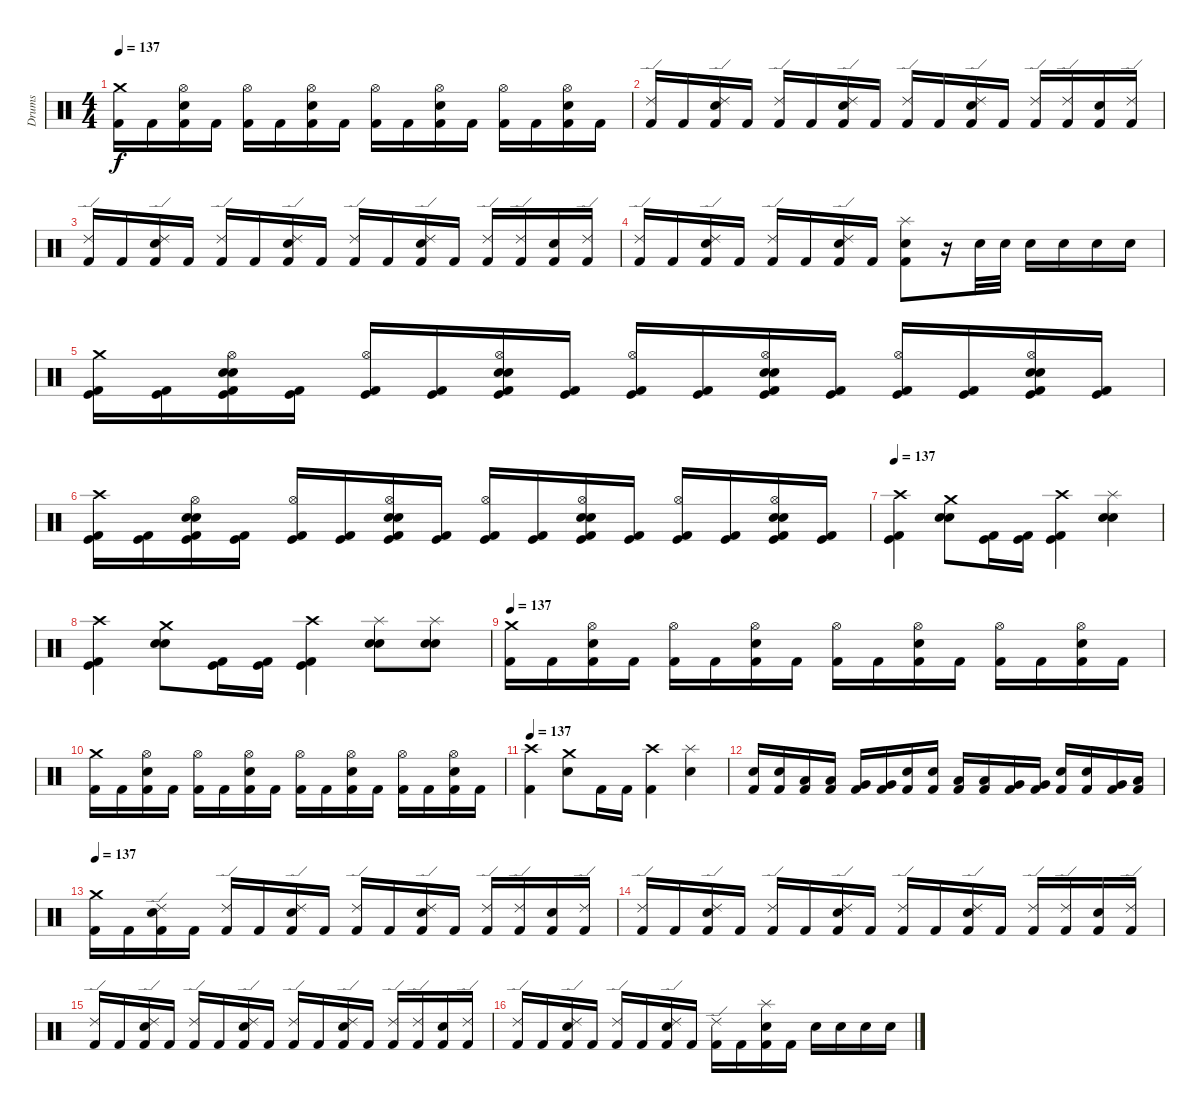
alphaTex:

\track ("Drums" "Drums") {instrument percussion}
\staff {score}
\articulation defaults
\ts (4 4)
\tempo 137
\clef neutral
\ks c
("Crash medium (hit)" "Kick (hit) 2").16{dy f} "Kick (hit) 2".16 ("Hi-Hat (open)" "Snare (hit) 2" "Kick (hit) 2").16 "Kick (hit) 2".16 ("Hi-Hat (open)" "Kick (hit) 2").16 "Kick (hit) 2".16 ("Hi-Hat (open)" "Snare (hit) 2" "Kick (hit) 2").16 "Kick (hit) 2".16 ("Hi-Hat (open)" "Kick (hit) 2").16 "Kick (hit) 2".16 ("Hi-Hat (open)" "Snare (hit) 2" "Kick (hit) 2").16 "Kick (hit) 2".16 ("Hi-Hat (open)" "Kick (hit) 2").16 "Kick (hit) 2".16 ("Hi-Hat (open)" "Snare (hit) 2" "Kick (hit) 2").16 "Kick (hit) 2".16 |
("Ride (edge) 2" "Kick (hit) 2").16 "Kick (hit) 2".16 ("Ride (edge) 2" "Snare (hit) 2" "Kick (hit) 2").16 "Kick (hit) 2".16 ("Ride (edge) 2" "Kick (hit) 2").16 "Kick (hit) 2".16 ("Ride (edge) 2" "Snare (hit) 2" "Kick (hit) 2").16 "Kick (hit) 2".16 ("Ride (edge) 2" "Kick (hit) 2").16 "Kick (hit) 2".16 ("Ride (edge) 2" "Snare (hit) 2" "Kick (hit) 2").16 "Kick (hit) 2".16 ("Ride (edge) 2" "Kick (hit) 2").16 ("Ride (edge) 2" "Kick (hit) 2").16 ("Snare (hit) 2" "Kick (hit) 2").16 ("Ride (edge) 2" "Kick (hit) 2").16 |
("Ride (edge) 2" "Kick (hit) 2").16 "Kick (hit) 2".16 ("Ride (edge) 2" "Snare (hit) 2" "Kick (hit) 2").16 "Kick (hit) 2".16 ("Ride (edge) 2" "Kick (hit) 2").16 "Kick (hit) 2".16 ("Ride (edge) 2" "Snare (hit) 2" "Kick (hit) 2").16 "Kick (hit) 2".16 ("Ride (edge) 2" "Kick (hit) 2").16 "Kick (hit) 2".16 ("Ride (edge) 2" "Snare (hit) 2" "Kick (hit) 2").16 "Kick (hit) 2".16 ("Ride (edge) 2" "Kick (hit) 2").16 ("Ride (edge) 2" "Kick (hit) 2").16 ("Snare (hit) 2" "Kick (hit) 2").16 ("Ride (edge) 2" "Kick (hit) 2").16 |
("Ride (edge) 2" "Kick (hit) 2").16 "Kick (hit) 2".16 ("Ride (edge) 2" "Snare (hit) 2" "Kick (hit) 2").16 "Kick (hit) 2".16 ("Ride (edge) 2" "Kick (hit) 2").16 "Kick (hit) 2".16 ("Ride (edge) 2" "Snare (hit) 2" "Kick (hit) 2").16 "Kick (hit) 2".16 ("Splash (hit)" "Snare (hit) 2" "Kick (hit) 2").8 r.16 "Snare (hit) 2".32 "Snare (hit) 2".32 "Snare (hit) 2".16 "Snare (hit) 2".16 "Snare (hit) 2".16 "Snare (hit) 2".16 |
("Crash medium (hit)" "Kick (hit) 2" "Kick (hit)").16 ("Kick (hit)" "Kick (hit) 2").16 ("Electric Snare (hit)" "Kick (hit)" "Kick (hit) 2" "Snare (hit) 2" "Hi-Hat (open)").16 ("Kick (hit)" "Kick (hit) 2").16 ("Hi-Hat (open)" "Kick (hit)" "Kick (hit) 2").16 ("Kick (hit)" "Kick (hit) 2").16 ("Electric Snare (hit)" "Kick (hit)" "Kick (hit) 2" "Snare (hit) 2" "Hi-Hat (open)").16 ("Kick (hit)" "Kick (hit) 2").16 ("Hi-Hat (open)" "Kick (hit)" "Kick (hit) 2").16 ("Kick (hit)" "Kick (hit) 2").16 ("Electric Snare (hit)" "Snare (hit) 2" "Kick (hit)" "Kick (hit) 2" "Hi-Hat (open)").16 ("Kick (hit)" "Kick (hit) 2").16 ("Hi-Hat (open)" "Kick (hit)" "Kick (hit) 2").16 ("Kick (hit)" "Kick (hit) 2").16 ("Hi-Hat (open)" "Electric Snare (hit)" "Snare (hit) 2" "Kick (hit)" "Kick (hit) 2").16 ("Kick (hit)" "Kick (hit) 2").16 |
("Crash high (hit)" "Kick (hit) 2" "Kick (hit)").16 ("Kick (hit)" "Kick (hit) 2").16 ("Electric Snare (hit)" "Kick (hit)" "Kick (hit) 2" "Snare (hit) 2" "Hi-Hat (open)").16 ("Kick (hit)" "Kick (hit) 2").16 ("Hi-Hat (open)" "Kick (hit)" "Kick (hit) 2").16 ("Kick (hit)" "Kick (hit) 2").16 ("Electric Snare (hit)" "Kick (hit)" "Kick (hit) 2" "Snare (hit) 2" "Hi-Hat (open)").16 ("Kick (hit)" "Kick (hit) 2").16 ("Hi-Hat (open)" "Kick (hit)" "Kick (hit) 2").16 ("Kick (hit)" "Kick (hit) 2").16 ("Hi-Hat (open)" "Electric Snare (hit)" "Snare (hit) 2" "Kick (hit)" "Kick (hit) 2").16 ("Kick (hit)" "Kick (hit) 2").16 ("Kick (hit)" "Kick (hit) 2" "Hi-Hat (open)").16 ("Kick (hit)" "Kick (hit) 2").16 ("Hi-Hat (open)" "Electric Snare (hit)" "Snare (hit) 2" "Kick (hit)" "Kick (hit) 2").16 ("Kick (hit)" "Kick (hit) 2").16 |
\tempo 137
("Crash high (hit)" "Kick (hit) 2" "Kick (hit)").4 ("Crash medium (hit)" "Snare (hit) 2" "Electric Snare (hit)").8 ("Kick (hit)" "Kick (hit) 2").16 ("Kick (hit)" "Kick (hit) 2").16 ("Crash high (hit)" "Kick (hit)" "Kick (hit) 2").4 ("Splash (hit)" "Snare (hit) 2" "Electric Snare (hit)").4 |
("Crash high (hit)" "Kick (hit)" "Kick (hit) 2").4 ("Crash medium (hit)" "Snare (hit) 2" "Electric Snare (hit)").8 ("Kick (hit)" "Kick (hit) 2").16 ("Kick (hit) 2" "Kick (hit)").16 ("Crash high (hit)" "Kick (hit)" "Kick (hit) 2").4 ("Splash (hit)" "Snare (hit) 2" "Electric Snare (hit)").8 ("Splash (hit)" "Snare (hit) 2" "Electric Snare (hit)").8 |
\tempo 137
("Crash medium (hit)" "Kick (hit) 2").16 "Kick (hit) 2".16 ("Hi-Hat (open)" "Snare (hit) 2" "Kick (hit) 2").16 "Kick (hit) 2".16 ("Hi-Hat (open)" "Kick (hit) 2").16 "Kick (hit) 2".16 ("Hi-Hat (open)" "Snare (hit) 2" "Kick (hit) 2").16 "Kick (hit) 2".16 ("Hi-Hat (open)" "Kick (hit) 2").16 "Kick (hit) 2".16 ("Hi-Hat (open)" "Snare (hit) 2" "Kick (hit) 2").16 "Kick (hit) 2".16 ("Hi-Hat (open)" "Kick (hit) 2").16 "Kick (hit) 2".16 ("Hi-Hat (open)" "Snare (hit) 2" "Kick (hit) 2").16 "Kick (hit) 2".16 |
("Crash medium (hit)" "Kick (hit) 2").16 "Kick (hit) 2".16 ("Hi-Hat (open)" "Snare (hit) 2" "Kick (hit) 2").16 "Kick (hit) 2".16 ("Hi-Hat (open)" "Kick (hit) 2").16 "Kick (hit) 2".16 ("Hi-Hat (open)" "Snare (hit) 2" "Kick (hit) 2").16 "Kick (hit) 2".16 ("Hi-Hat (open)" "Kick (hit) 2").16 "Kick (hit) 2".16 ("Hi-Hat (open)" "Snare (hit) 2" "Kick (hit) 2").16 "Kick (hit) 2".16 ("Hi-Hat (open)" "Kick (hit) 2").16 "Kick (hit) 2".16 ("Hi-Hat (open)" "Snare (hit) 2" "Kick (hit) 2").16 "Kick (hit) 2".16 |
\tempo 137
("Crash high (hit)" "Kick (hit) 2").4 ("Crash medium (hit)" "Snare (hit) 2").8 "Kick (hit) 2".16 "Kick (hit) 2".16 ("Crash high (hit)" "Kick (hit) 2").4 ("Splash (hit)" "Snare (hit) 2").4 |
("Snare (hit) 2" "Kick (hit) 2").16 ("Snare (hit) 2" "Kick (hit) 2").16 ("Low Tom (hit)" "Kick (hit) 2").16 ("Low Tom (hit)" "Kick (hit) 2").16 ("Very Low Tom (hit)" "Kick (hit) 2").16 ("Very Low Tom (hit)" "Kick (hit) 2").16 ("Snare (hit) 2" "Kick (hit) 2").16 ("Snare (hit) 2" "Kick (hit) 2").16 ("Low Tom (hit)" "Kick (hit) 2").16 ("Low Tom (hit)" "Kick (hit) 2").16 ("Very Low Tom (hit)" "Kick (hit) 2").16 ("Very Low Tom (hit)" "Kick (hit) 2").16 ("Snare (hit) 2" "Kick (hit) 2").16 ("Snare (hit) 2" "Kick (hit) 2").16 ("Very Low Tom (hit)" "Kick (hit) 2").16 ("Low Floor Tom (hit)" "Kick (hit) 2").16 |
\tempo 137
("Crash medium (hit)" "Kick (hit) 2").16 "Kick (hit) 2".16 ("Ride (edge) 2" "Snare (hit) 2" "Kick (hit) 2").16 "Kick (hit) 2".16 ("Ride (edge) 2" "Kick (hit) 2").16 "Kick (hit) 2".16 ("Ride (edge) 2" "Snare (hit) 2" "Kick (hit) 2").16 "Kick (hit) 2".16 ("Ride (edge) 2" "Kick (hit) 2").16 "Kick (hit) 2".16 ("Ride (edge) 2" "Snare (hit) 2" "Kick (hit) 2").16 "Kick (hit) 2".16 ("Ride (edge) 2" "Kick (hit) 2").16 ("Ride (edge) 2" "Kick (hit) 2").16 ("Snare (hit) 2" "Kick (hit) 2").16 ("Ride (edge) 2" "Kick (hit) 2").16 |
("Ride (edge) 2" "Kick (hit) 2").16 "Kick (hit) 2".16 ("Ride (edge) 2" "Snare (hit) 2" "Kick (hit) 2").16 "Kick (hit) 2".16 ("Ride (edge) 2" "Kick (hit) 2").16 "Kick (hit) 2".16 ("Ride (edge) 2" "Snare (hit) 2" "Kick (hit) 2").16 "Kick (hit) 2".16 ("Ride (edge) 2" "Kick (hit) 2").16 "Kick (hit) 2".16 ("Ride (edge) 2" "Snare (hit) 2" "Kick (hit) 2").16 "Kick (hit) 2".16 ("Ride (edge) 2" "Kick (hit) 2").16 ("Ride (edge) 2" "Kick (hit) 2").16 ("Snare (hit) 2" "Kick (hit) 2").16 ("Ride (edge) 2" "Kick (hit) 2").16 |
("Ride (edge) 2" "Kick (hit) 2").16 "Kick (hit) 2".16 ("Ride (edge) 2" "Snare (hit) 2" "Kick (hit) 2").16 "Kick (hit) 2".16 ("Ride (edge) 2" "Kick (hit) 2").16 "Kick (hit) 2".16 ("Ride (edge) 2" "Snare (hit) 2" "Kick (hit) 2").16 "Kick (hit) 2".16 ("Ride (edge) 2" "Kick (hit) 2").16 "Kick (hit) 2".16 ("Ride (edge) 2" "Snare (hit) 2" "Kick (hit) 2").16 "Kick (hit) 2".16 ("Ride (edge) 2" "Kick (hit) 2").16 ("Ride (edge) 2" "Kick (hit) 2").16 ("Snare (hit) 2" "Kick (hit) 2").16 ("Ride (edge) 2" "Kick (hit) 2").16 |
("Ride (edge) 2" "Kick (hit) 2").16 "Kick (hit) 2".16 ("Ride (edge) 2" "Snare (hit) 2" "Kick (hit) 2").16 "Kick (hit) 2".16 ("Ride (edge) 2" "Kick (hit) 2").16 "Kick (hit) 2".16 ("Ride (edge) 2" "Snare (hit) 2" "Kick (hit) 2").16 "Kick (hit) 2".16 ("Ride (edge) 2" "Kick (hit) 2").16 "Kick (hit) 2".16 ("Splash (hit)" "Snare (hit) 2" "Kick (hit) 2").16 "Kick (hit) 2".16 "Snare (hit) 2".16 "Snare (hit) 2".16 "Snare (hit) 2".16 "Snare (hit) 2".16
